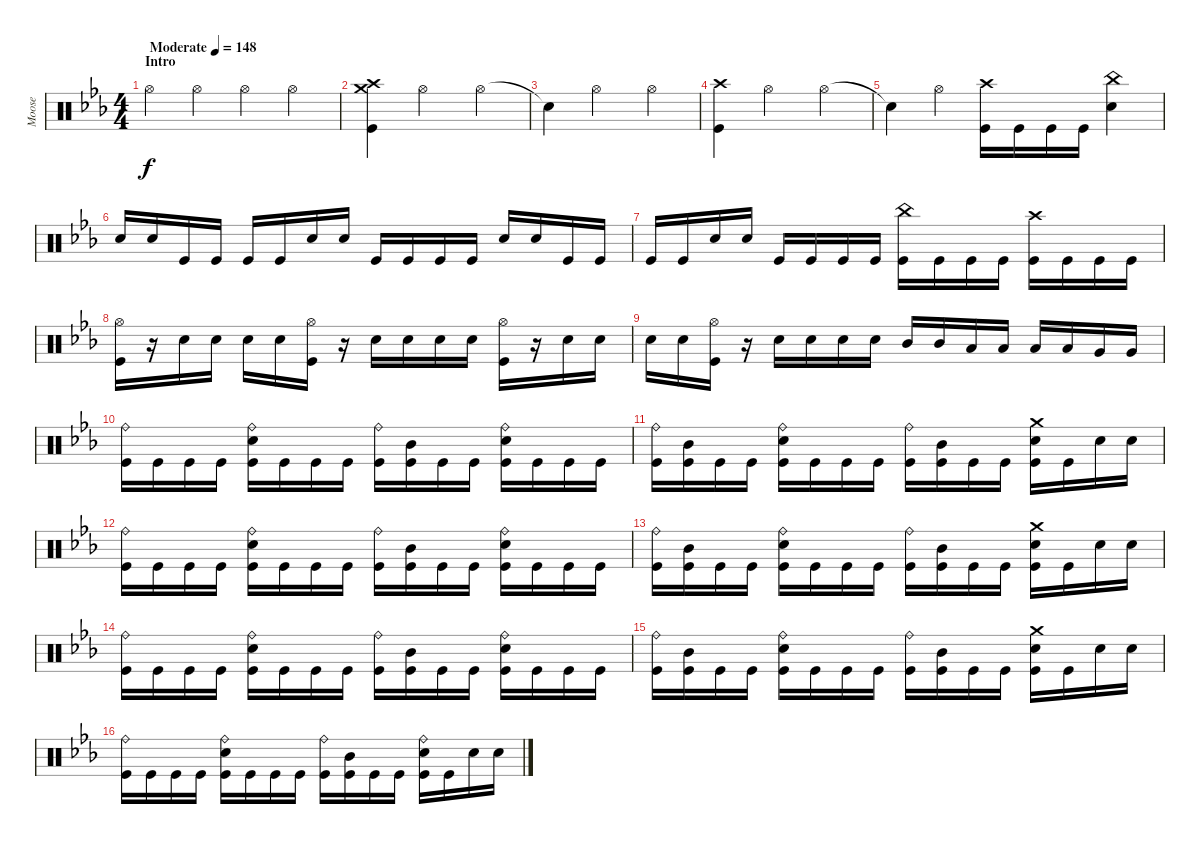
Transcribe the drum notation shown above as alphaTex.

\track ("Moose" "Moose") {instrument percussion}
\staff {score}
\articulation defaults
\ts (4 4)
\section ("" "Intro")
\tempo (148 "Moderate")
\clef neutral
\ks eb "Hi-Hat (open)".4{dy f} "Hi-Hat (open)".4 "Hi-Hat (open)".4 "Hi-Hat (open)".4
|
("Crash medium (hit)" "Crash high (hit)" "Kick (hit)").4 "Hi-Hat (open)".2 "Hi-Hat (open)".4 |
"Snare (hit)"{t}.4 "Hi-Hat (open)".2 "Hi-Hat (open)".4 |
("Crash high (hit)" "Kick (hit)").4 "Hi-Hat (open)".2 "Hi-Hat (open)".4 |
"Snare (hit)"{t}.4 "Hi-Hat (open)".4 ("Crash high (hit)" "Kick (hit)").16 "Kick (hit)".16 "Kick (hit)".16 "Kick (hit)".16 ("China (hit)" "Snare (hit) 2").4 |
"Snare (hit) 2".16 "Snare (hit) 2".16 "Kick (hit)".16 "Kick (hit)".16 "Kick (hit)".16 "Kick (hit)".16 "Snare (hit) 2".16 "Snare (hit) 2".16 "Kick (hit)".16 "Kick (hit)".16 "Kick (hit)".16 "Kick (hit)".16 "Snare (hit) 2".16 "Snare (hit) 2".16 "Kick (hit)".16 "Kick (hit)".16 |
"Kick (hit)".16 "Kick (hit)".16 "Snare (hit) 2".16 "Snare (hit) 2".16 "Kick (hit)".16 "Kick (hit)".16 "Kick (hit)".16 "Kick (hit)".16 ("China (hit)" "Kick (hit)").16 "Kick (hit)".16 "Kick (hit)".16 "Kick (hit)".16 ("Crash high (hit)" "Kick (hit)").16 "Kick (hit)".16 "Kick (hit)".16 "Kick (hit)".16 |
("Hi-Hat (open)" "Kick (hit)").16 r.16 "Snare (hit) 2".16 "Snare (hit) 2".16 "Snare (hit) 2".16 "Snare (hit) 2".16 ("Hi-Hat (open)" "Kick (hit)").16 r.16 "Snare (hit) 2".16 "Snare (hit) 2".16 "Snare (hit) 2".16 "Snare (hit) 2".16 ("Hi-Hat (open)" "Kick (hit)").16 r.16 "Snare (hit) 2".16 "Snare (hit) 2".16 |
"Snare (hit) 2".16 "Snare (hit) 2".16 ("Hi-Hat (open)" "Kick (hit)").16 r.16 "Snare (hit) 2".16 "Snare (hit) 2".16 "Snare (hit) 2".16 "Snare (hit) 2".16 "Mid Tom (hit)".16 "Mid Tom (hit)".16 "Low Tom (hit)".16 "Low Tom (hit)".16 "Low Tom (hit)".16 "Low Tom (hit)".16 "Very Low Tom (hit)".16 "Very Low Tom (hit)".16 |
("Ride (bell)" "Kick (hit)").16 "Kick (hit)".16 "Kick (hit)".16 "Kick (hit)".16 ("Ride (bell)" "Snare (hit) 2" "Kick (hit)").16 "Kick (hit)".16 "Kick (hit)".16 "Kick (hit)".16 ("Ride (bell)" "Kick (hit)").16 ("Mid Tom (hit)" "Kick (hit)").16 "Kick (hit)".16 "Kick (hit)".16 ("Ride (bell)" "Snare (hit) 2" "Kick (hit)").16 "Kick (hit)".16 "Kick (hit)".16 "Kick (hit)".16 |
("Ride (bell)" "Kick (hit)").16 ("Mid Tom (hit)" "Kick (hit)").16 "Kick (hit)".16 "Kick (hit)".16 ("Ride (bell)" "Snare (hit) 2" "Kick (hit)").16 "Kick (hit)".16 "Kick (hit)".16 "Kick (hit)".16 ("Ride (bell)" "Kick (hit)").16 ("Mid Tom (hit)" "Kick (hit)").16 "Kick (hit)".16 "Kick (hit)".16 ("Crash medium (hit)" "Snare (hit) 2" "Kick (hit)").16 "Kick (hit)".16 "Snare (hit) 2".16 "Snare (hit) 2".16 |
("Ride (bell)" "Kick (hit)").16 "Kick (hit)".16 "Kick (hit)".16 "Kick (hit)".16 ("Ride (bell)" "Snare (hit) 2" "Kick (hit)").16 "Kick (hit)".16 "Kick (hit)".16 "Kick (hit)".16 ("Ride (bell)" "Kick (hit)").16 ("Mid Tom (hit)" "Kick (hit)").16 "Kick (hit)".16 "Kick (hit)".16 ("Ride (bell)" "Snare (hit) 2" "Kick (hit)").16 "Kick (hit)".16 "Kick (hit)".16 "Kick (hit)".16 |
("Ride (bell)" "Kick (hit)").16 ("Mid Tom (hit)" "Kick (hit)").16 "Kick (hit)".16 "Kick (hit)".16 ("Ride (bell)" "Snare (hit) 2" "Kick (hit)").16 "Kick (hit)".16 "Kick (hit)".16 "Kick (hit)".16 ("Ride (bell)" "Kick (hit)").16 ("Mid Tom (hit)" "Kick (hit)").16 "Kick (hit)".16 "Kick (hit)".16 ("Crash medium (hit)" "Snare (hit) 2" "Kick (hit)").16 "Kick (hit)".16 "Snare (hit) 2".16 "Snare (hit) 2".16 |
("Ride (bell)" "Kick (hit)").16 "Kick (hit)".16 "Kick (hit)".16 "Kick (hit)".16 ("Ride (bell)" "Snare (hit) 2" "Kick (hit)").16 "Kick (hit)".16 "Kick (hit)".16 "Kick (hit)".16 ("Ride (bell)" "Kick (hit)").16 ("Mid Tom (hit)" "Kick (hit)").16 "Kick (hit)".16 "Kick (hit)".16 ("Ride (bell)" "Snare (hit) 2" "Kick (hit)").16 "Kick (hit)".16 "Kick (hit)".16 "Kick (hit)".16 |
("Ride (bell)" "Kick (hit)").16 ("Mid Tom (hit)" "Kick (hit)").16 "Kick (hit)".16 "Kick (hit)".16 ("Ride (bell)" "Snare (hit) 2" "Kick (hit)").16 "Kick (hit)".16 "Kick (hit)".16 "Kick (hit)".16 ("Ride (bell)" "Kick (hit)").16 ("Mid Tom (hit)" "Kick (hit)").16 "Kick (hit)".16 "Kick (hit)".16 ("Crash medium (hit)" "Snare (hit) 2" "Kick (hit)").16 "Kick (hit)".16 "Snare (hit) 2".16 "Snare (hit) 2".16 |
("Ride (bell)" "Kick (hit)").16 "Kick (hit)".16 "Kick (hit)".16 "Kick (hit)".16 ("Ride (bell)" "Snare (hit) 2" "Kick (hit)").16 "Kick (hit)".16 "Kick (hit)".16 "Kick (hit)".16 ("Ride (bell)" "Kick (hit)").16 ("Mid Tom (hit)" "Kick (hit)").16 "Kick (hit)".16 "Kick (hit)".16 ("Ride (bell)" "Snare (hit) 2" "Kick (hit)").16 "Kick (hit)".16 "Snare (hit) 2".16 "Snare (hit) 2".16
